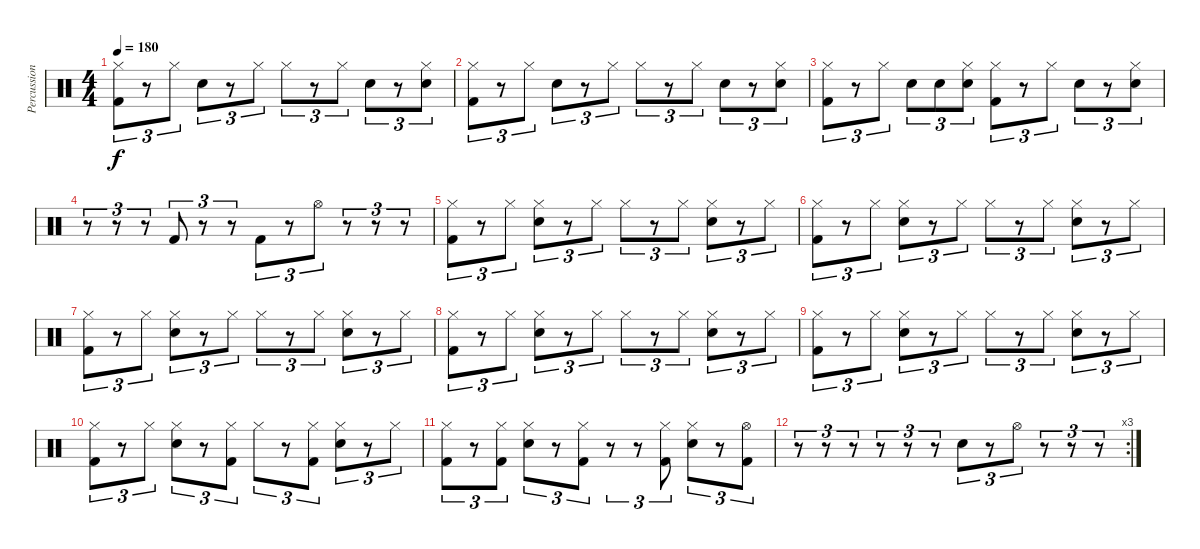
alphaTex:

\track ("Percussion" "Percussion") {instrument percussion}
\staff {score}
\articulation defaults
\ts (4 4)
\tempo 180
\clef neutral
\ks c
("Hi-Hat (closed)" "Kick (hit) 2").8{tu (3 2) dy f} r.8{tu (3 2)} "Hi-Hat (closed)".8{tu (3 2)} "Snare (hit) 2".8{tu (3 2)} r.8{tu (3 2)} "Hi-Hat (closed)".8{tu (3 2)} "Hi-Hat (closed)".8{tu (3 2)} r.8{tu (3 2)} "Hi-Hat (closed)".8{tu (3 2)} "Snare (hit) 2".8{tu (3 2)} r.8{tu (3 2)} ("Hi-Hat (closed)" "Snare (hit) 2").8{tu (3 2)} |
("Hi-Hat (closed)" "Kick (hit) 2").8{tu (3 2)} r.8{tu (3 2)} "Hi-Hat (closed)".8{tu (3 2)} "Snare (hit) 2".8{tu (3 2)} r.8{tu (3 2)} "Hi-Hat (closed)".8{tu (3 2)} "Hi-Hat (closed)".8{tu (3 2)} r.8{tu (3 2)} "Hi-Hat (closed)".8{tu (3 2)} "Snare (hit) 2".8{tu (3 2)} r.8{tu (3 2)} ("Hi-Hat (closed)" "Snare (hit) 2").8{tu (3 2)} |
("Hi-Hat (closed)" "Kick (hit) 2").8{tu (3 2)} r.8{tu (3 2)} "Hi-Hat (closed)".8{tu (3 2)} "Snare (hit) 2".8{tu (3 2)} "Snare (hit) 2".8{tu (3 2)} ("Hi-Hat (closed)" "Snare (hit) 2").8{tu (3 2)} ("Hi-Hat (closed)" "Kick (hit) 2").8{tu (3 2)} r.8{tu (3 2)} "Hi-Hat (closed)".8{tu (3 2)} "Snare (hit) 2".8{tu (3 2)} r.8{tu (3 2)} ("Hi-Hat (closed)" "Snare (hit) 2").8{tu (3 2)} |
r.8{tu (3 2)} r.8{tu (3 2)} r.8{tu (3 2)} "Kick (hit) 2".8{tu (3 2)} r.8{tu (3 2)} r.8{tu (3 2)} "Kick (hit) 2".8{tu (3 2)} r.8{tu (3 2)} "Hi-Hat (open)".8{tu (3 2)} r.8{tu (3 2)} r.8{tu (3 2)} r.8{tu (3 2)} |
("Hi-Hat (closed)" "Kick (hit) 2").8{tu (3 2)} r.8{tu (3 2)} "Hi-Hat (closed)".8{tu (3 2)} ("Hi-Hat (closed)" "Snare (hit) 2").8{tu (3 2)} r.8{tu (3 2)} "Hi-Hat (closed)".8{tu (3 2)} "Hi-Hat (closed)".8{tu (3 2)} r.8{tu (3 2)} "Hi-Hat (closed)".8{tu (3 2)} ("Hi-Hat (closed)" "Snare (hit) 2").8{tu (3 2)} r.8{tu (3 2)} "Hi-Hat (closed)".8{tu (3 2)} |
("Hi-Hat (closed)" "Kick (hit) 2").8{tu (3 2)} r.8{tu (3 2)} "Hi-Hat (closed)".8{tu (3 2)} ("Hi-Hat (closed)" "Snare (hit) 2").8{tu (3 2)} r.8{tu (3 2)} "Hi-Hat (closed)".8{tu (3 2)} "Hi-Hat (closed)".8{tu (3 2)} r.8{tu (3 2)} "Hi-Hat (closed)".8{tu (3 2)} ("Hi-Hat (closed)" "Snare (hit) 2").8{tu (3 2)} r.8{tu (3 2)} "Hi-Hat (closed)".8{tu (3 2)} |
("Hi-Hat (closed)" "Kick (hit) 2").8{tu (3 2)} r.8{tu (3 2)} "Hi-Hat (closed)".8{tu (3 2)} ("Hi-Hat (closed)" "Snare (hit) 2").8{tu (3 2)} r.8{tu (3 2)} "Hi-Hat (closed)".8{tu (3 2)} "Hi-Hat (closed)".8{tu (3 2)} r.8{tu (3 2)} "Hi-Hat (closed)".8{tu (3 2)} ("Hi-Hat (closed)" "Snare (hit) 2").8{tu (3 2)} r.8{tu (3 2)} "Hi-Hat (closed)".8{tu (3 2)} |
("Hi-Hat (closed)" "Kick (hit) 2").8{tu (3 2)} r.8{tu (3 2)} "Hi-Hat (closed)".8{tu (3 2)} ("Hi-Hat (closed)" "Snare (hit) 2").8{tu (3 2)} r.8{tu (3 2)} "Hi-Hat (closed)".8{tu (3 2)} "Hi-Hat (closed)".8{tu (3 2)} r.8{tu (3 2)} "Hi-Hat (closed)".8{tu (3 2)} ("Hi-Hat (closed)" "Snare (hit) 2").8{tu (3 2)} r.8{tu (3 2)} "Hi-Hat (closed)".8{tu (3 2)} |
("Hi-Hat (closed)" "Kick (hit) 2").8{tu (3 2)} r.8{tu (3 2)} "Hi-Hat (closed)".8{tu (3 2)} ("Hi-Hat (closed)" "Snare (hit) 2").8{tu (3 2)} r.8{tu (3 2)} "Hi-Hat (closed)".8{tu (3 2)} "Hi-Hat (closed)".8{tu (3 2)} r.8{tu (3 2)} "Hi-Hat (closed)".8{tu (3 2)} ("Hi-Hat (closed)" "Snare (hit) 2").8{tu (3 2)} r.8{tu (3 2)} "Hi-Hat (closed)".8{tu (3 2)} |
("Hi-Hat (closed)" "Kick (hit) 2").8{tu (3 2)} r.8{tu (3 2)} "Hi-Hat (closed)".8{tu (3 2)} ("Hi-Hat (closed)" "Snare (hit) 2").8{tu (3 2)} r.8{tu (3 2)} ("Hi-Hat (closed)" "Kick (hit) 2").8{tu (3 2)} "Hi-Hat (closed)".8{tu (3 2)} r.8{tu (3 2)} ("Hi-Hat (closed)" "Kick (hit) 2").8{tu (3 2)} ("Hi-Hat (closed)" "Snare (hit) 2").8{tu (3 2)} r.8{tu (3 2)} "Hi-Hat (closed)".8{tu (3 2)} |
("Hi-Hat (closed)" "Kick (hit) 2").8{tu (3 2)} r.8{tu (3 2)} ("Hi-Hat (closed)" "Kick (hit) 2").8{tu (3 2)} ("Hi-Hat (closed)" "Snare (hit) 2").8{tu (3 2)} r.8{tu (3 2)} ("Hi-Hat (closed)" "Kick (hit) 2").8{tu (3 2)} r.8{tu (3 2)} r.8{tu (3 2)} ("Hi-Hat (closed)" "Kick (hit) 2").8{tu (3 2)} ("Hi-Hat (closed)" "Snare (hit) 2").8{tu (3 2)} r.8{tu (3 2)} ("Hi-Hat (open)" "Kick (hit) 2").8{tu (3 2)} |
\rc 3
r.8{tu (3 2)} r.8{tu (3 2)} r.8{tu (3 2)} r.8{tu (3 2)} r.8{tu (3 2)} r.8{tu (3 2)} "Snare (hit) 2".8{tu (3 2)} r.8{tu (3 2)} "Hi-Hat (open)".8{tu (3 2)} r.8{tu (3 2)} r.8{tu (3 2)} r.8{tu (3 2)}
